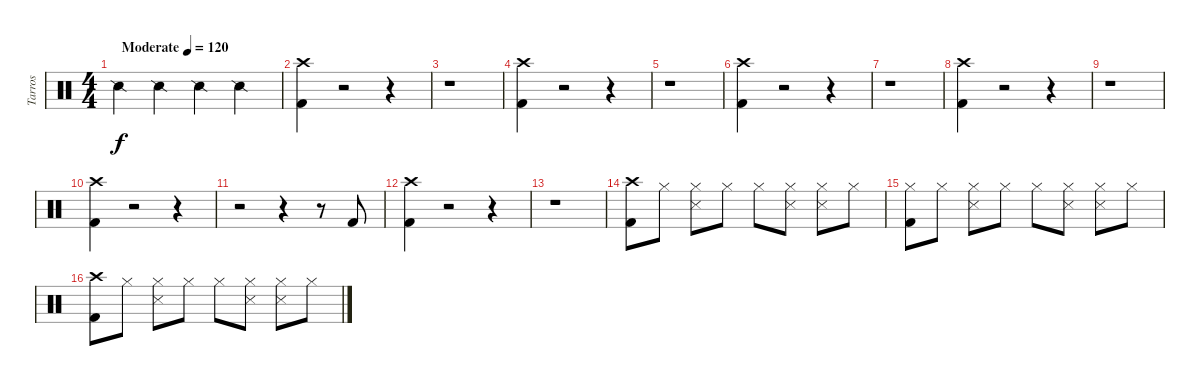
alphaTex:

\track ("Tarros" "Tarros") {instrument percussion}
\staff {score}
\articulation defaults
\ts (4 4)
\tempo (120 "Moderate")
\clef neutral
\ks c "Snare (side stick) 2".4{dy f} "Snare (side stick) 2".4 "Snare (side stick) 2".4 "Snare (side stick) 2".4
|
("Crash high (hit)" "Kick (hit) 2").4 r.2 r.4 |
r.1 |
("Crash high (hit)" "Kick (hit) 2").4 r.2 r.4 |
r.1 |
("Crash high (hit)" "Kick (hit) 2").4 r.2 r.4 |
r.1 |
("Crash high (hit)" "Kick (hit) 2").4 r.2 r.4 |
r.1 |
("Crash high (hit)" "Kick (hit) 2").4 r.2 r.4 |
r.2 r.4 r.8 "Kick (hit) 2".8 |
("Crash high (hit)" "Kick (hit) 2").4 r.2 r.4 |
r.1 |
("Crash high (hit)" "Kick (hit) 2").8 "Hi-Hat (closed)".8 ("Hi-Hat (closed)" "Metronome (hit)").8 "Hi-Hat (closed)".8 "Hi-Hat (closed)".8 ("Hi-Hat (closed)" "Metronome (hit)").8 ("Hi-Hat (closed)" "Metronome (hit)").8 "Hi-Hat (closed)".8 |
("Hi-Hat (closed)" "Kick (hit) 2").8 "Hi-Hat (closed)".8 ("Hi-Hat (closed)" "Metronome (hit)").8 "Hi-Hat (closed)".8 "Hi-Hat (closed)".8 ("Hi-Hat (closed)" "Metronome (hit)").8 ("Hi-Hat (closed)" "Metronome (hit)").8 "Hi-Hat (closed)".8 |
("Crash high (hit)" "Kick (hit) 2").8 "Hi-Hat (closed)".8 ("Hi-Hat (closed)" "Metronome (hit)").8 "Hi-Hat (closed)".8 "Hi-Hat (closed)".8 ("Hi-Hat (closed)" "Metronome (hit)").8 ("Hi-Hat (closed)" "Metronome (hit)").8 "Hi-Hat (closed)".8
